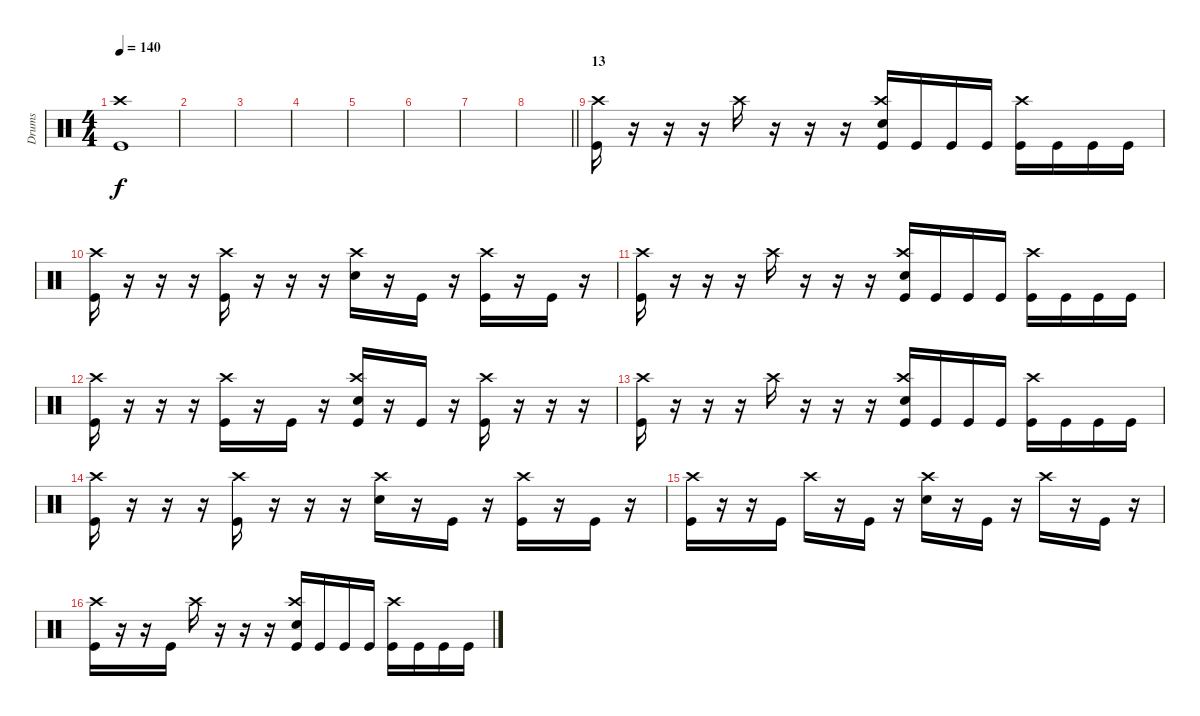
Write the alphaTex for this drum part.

\track ("Drums" "Drums") {instrument percussion}
\staff {score}
\articulation defaults
\ts (4 4)
\tempo 140
\clef neutral
\ks c
("Kick (hit)" "Crash high (hit)").1{dy f} |
|
|
|
|
|
|
\barLineRight lightlight
|
\section ("" "13")
("Kick (hit)" "Crash high (hit)").16 r.16 r.16 r.16 "Crash high (hit)".16 r.16 r.16 r.16 ("Kick (hit)" "Snare (hit) 2" "Crash high (hit)").16 "Kick (hit)".16 "Kick (hit)".16 "Kick (hit)".16 ("Kick (hit)" "Crash high (hit)").16 "Kick (hit)".16 "Kick (hit)".16 "Kick (hit)".16 |
("Kick (hit)" "Crash high (hit)").16 r.16 r.16 r.16 ("Kick (hit)" "Crash high (hit)").16 r.16 r.16 r.16 ("Snare (hit) 2" "Crash high (hit)").16 r.16 "Kick (hit)".16 r.16 ("Kick (hit)" "Crash high (hit)").16 r.16 "Kick (hit)".16 r.16 |
("Kick (hit)" "Crash high (hit)").16 r.16 r.16 r.16 "Crash high (hit)".16 r.16 r.16 r.16 ("Kick (hit)" "Snare (hit) 2" "Crash high (hit)").16 "Kick (hit)".16 "Kick (hit)".16 "Kick (hit)".16 ("Kick (hit)" "Crash high (hit)").16 "Kick (hit)".16 "Kick (hit)".16 "Kick (hit)".16 |
("Kick (hit)" "Crash high (hit)").16 r.16 r.16 r.16 ("Kick (hit)" "Crash high (hit)").16 r.16 "Kick (hit)".16 r.16 ("Kick (hit)" "Snare (hit) 2" "Crash high (hit)").16 r.16 "Kick (hit)".16 r.16 ("Kick (hit)" "Crash high (hit)").16 r.16 r.16 r.16 |
("Kick (hit)" "Crash high (hit)").16 r.16 r.16 r.16 "Crash high (hit)".16 r.16 r.16 r.16 ("Kick (hit)" "Snare (hit) 2" "Crash high (hit)").16 "Kick (hit)".16 "Kick (hit)".16 "Kick (hit)".16 ("Kick (hit)" "Crash high (hit)").16 "Kick (hit)".16 "Kick (hit)".16 "Kick (hit)".16 |
("Kick (hit)" "Crash high (hit)").16 r.16 r.16 r.16 ("Kick (hit)" "Crash high (hit)").16 r.16 r.16 r.16 ("Snare (hit) 2" "Crash high (hit)").16 r.16 "Kick (hit)".16 r.16 ("Kick (hit)" "Crash high (hit)").16 r.16 "Kick (hit)".16 r.16 |
("Kick (hit)" "Crash high (hit)").16 r.16 r.16 "Kick (hit)".16 "Crash high (hit)".16 r.16 "Kick (hit)".16 r.16 ("Snare (hit) 2" "Crash high (hit)").16 r.16 "Kick (hit)".16 r.16 "Crash high (hit)".16 r.16 "Kick (hit)".16 r.16 |
("Kick (hit)" "Crash high (hit)").16 r.16 r.16 "Kick (hit)".16 "Crash high (hit)".16 r.16 r.16 r.16 ("Kick (hit)" "Snare (hit) 2" "Crash high (hit)").16 "Kick (hit)".16 "Kick (hit)".16 "Kick (hit)".16 ("Kick (hit)" "Crash high (hit)").16 "Kick (hit)".16 "Kick (hit)".16 "Kick (hit)".16
